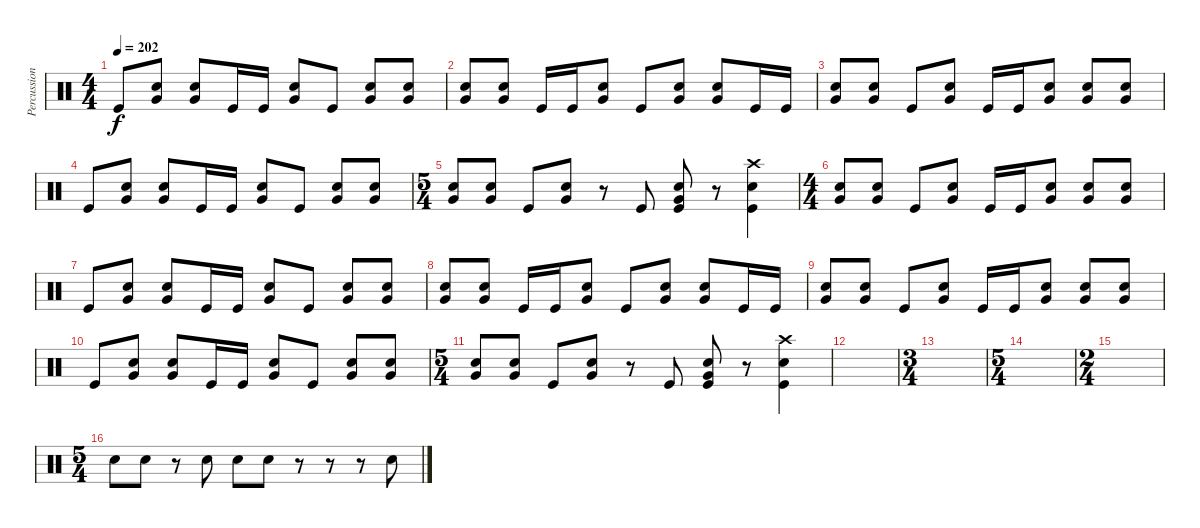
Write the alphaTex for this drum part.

\track ("Percussion" "Percussion") {instrument percussion}
\staff {score}
\articulation defaults
\ts (4 4)
\tempo 202
\clef neutral
\ks c "Kick (hit)".8{dy f}
("Very Low Tom (hit)" "Snare (hit) 2").8 ("Very Low Tom (hit)" "Snare (hit) 2").8 "Kick (hit)".16 "Kick (hit)".16 ("Very Low Tom (hit)" "Snare (hit) 2").8 "Kick (hit)".8 ("Very Low Tom (hit)" "Snare (hit) 2").8 ("Very Low Tom (hit)" "Snare (hit) 2").8 |
("Very Low Tom (hit)" "Snare (hit) 2").8 ("Very Low Tom (hit)" "Snare (hit) 2").8 "Kick (hit)".16 "Kick (hit)".16 ("Very Low Tom (hit)" "Snare (hit) 2").8 "Kick (hit)".8 ("Very Low Tom (hit)" "Snare (hit) 2").8 ("Very Low Tom (hit)" "Snare (hit) 2").8 "Kick (hit)".16 "Kick (hit)".16 |
("Very Low Tom (hit)" "Snare (hit) 2").8 ("Very Low Tom (hit)" "Snare (hit) 2").8 "Kick (hit)".8 ("Very Low Tom (hit)" "Snare (hit) 2").8 "Kick (hit)".16 "Kick (hit)".16 ("Very Low Tom (hit)" "Snare (hit) 2").8 ("Very Low Tom (hit)" "Snare (hit) 2").8 ("Very Low Tom (hit)" "Snare (hit) 2").8 |
"Kick (hit)".8 ("Very Low Tom (hit)" "Snare (hit) 2").8 ("Very Low Tom (hit)" "Snare (hit) 2").8 "Kick (hit)".16 "Kick (hit)".16 ("Very Low Tom (hit)" "Snare (hit) 2").8 "Kick (hit)".8 ("Very Low Tom (hit)" "Snare (hit) 2").8 ("Very Low Tom (hit)" "Snare (hit) 2").8 |
\ts (5 4)
("Very Low Tom (hit)" "Snare (hit) 2").8 ("Very Low Tom (hit)" "Snare (hit) 2").8 "Kick (hit)".8 ("Very Low Tom (hit)" "Snare (hit) 2").8 r.8 "Kick (hit)".8 ("Very Low Tom (hit)" "Snare (hit) 2" "Kick (hit)").8 r.8 ("Crash high (hit)" "Snare (hit) 2" "Kick (hit)").4 |
\ts (4 4)
("Very Low Tom (hit)" "Snare (hit) 2").8 ("Very Low Tom (hit)" "Snare (hit) 2").8 "Kick (hit)".8 ("Very Low Tom (hit)" "Snare (hit) 2").8 "Kick (hit)".16 "Kick (hit)".16 ("Very Low Tom (hit)" "Snare (hit) 2").8 ("Very Low Tom (hit)" "Snare (hit) 2").8 ("Very Low Tom (hit)" "Snare (hit) 2").8 |
"Kick (hit)".8 ("Very Low Tom (hit)" "Snare (hit) 2").8 ("Very Low Tom (hit)" "Snare (hit) 2").8 "Kick (hit)".16 "Kick (hit)".16 ("Very Low Tom (hit)" "Snare (hit) 2").8 "Kick (hit)".8 ("Very Low Tom (hit)" "Snare (hit) 2").8 ("Very Low Tom (hit)" "Snare (hit) 2").8 |
("Very Low Tom (hit)" "Snare (hit) 2").8 ("Very Low Tom (hit)" "Snare (hit) 2").8 "Kick (hit)".16 "Kick (hit)".16 ("Very Low Tom (hit)" "Snare (hit) 2").8 "Kick (hit)".8 ("Very Low Tom (hit)" "Snare (hit) 2").8 ("Very Low Tom (hit)" "Snare (hit) 2").8 "Kick (hit)".16 "Kick (hit)".16 |
("Very Low Tom (hit)" "Snare (hit) 2").8 ("Very Low Tom (hit)" "Snare (hit) 2").8 "Kick (hit)".8 ("Very Low Tom (hit)" "Snare (hit) 2").8 "Kick (hit)".16 "Kick (hit)".16 ("Very Low Tom (hit)" "Snare (hit) 2").8 ("Very Low Tom (hit)" "Snare (hit) 2").8 ("Very Low Tom (hit)" "Snare (hit) 2").8 |
"Kick (hit)".8 ("Very Low Tom (hit)" "Snare (hit) 2").8 ("Very Low Tom (hit)" "Snare (hit) 2").8 "Kick (hit)".16 "Kick (hit)".16 ("Very Low Tom (hit)" "Snare (hit) 2").8 "Kick (hit)".8 ("Very Low Tom (hit)" "Snare (hit) 2").8 ("Very Low Tom (hit)" "Snare (hit) 2").8 |
\ts (5 4)
("Very Low Tom (hit)" "Snare (hit) 2").8 ("Very Low Tom (hit)" "Snare (hit) 2").8 "Kick (hit)".8 ("Very Low Tom (hit)" "Snare (hit) 2").8 r.8 "Kick (hit)".8 ("Very Low Tom (hit)" "Snare (hit) 2" "Kick (hit)").8 r.8 ("Crash high (hit)" "Snare (hit) 2" "Kick (hit)").4 |
|
\ts (3 4)
|
\ts (5 4)
|
\ts (2 4)
|
\ts (5 4)
"Snare (hit) 2".8 "Snare (hit) 2".8 r.8 "Snare (hit) 2".8 "Snare (hit) 2".8 "Snare (hit) 2".8 r.8 r.8 r.8 "Snare (hit) 2".8
